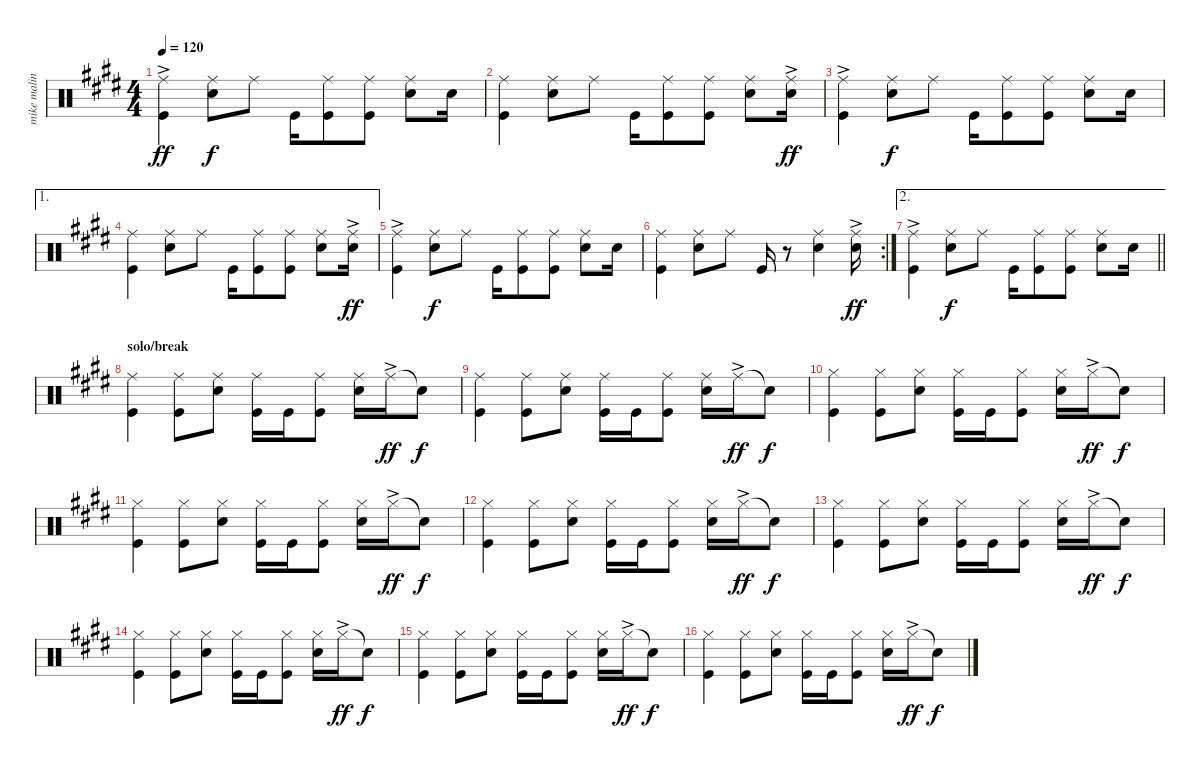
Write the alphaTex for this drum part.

\track ("mike malinin(drums)" "mike malin") {instrument percussion}
\staff {score}
\articulation defaults
\ts (4 4)
\tempo 120
\clef neutral
\ks e
("Kick (hit)"{ac} "Ride (middle)").4{dy ff} ("Ride (middle)" "Snare (hit) 2").8{dy f} "Ride (middle)".8 "Kick (hit)".16 ("Ride (middle)" "Kick (hit)").8 ("Ride (middle)" "Kick (hit)").8 ("Ride (middle)" "Snare (hit) 2").8 "Snare (hit) 2".16 |
("Kick (hit)" "Ride (middle)").4 ("Ride (middle)" "Snare (hit) 2").8 "Ride (middle)".8 "Kick (hit)".16 ("Ride (middle)" "Kick (hit)").8 ("Ride (middle)" "Kick (hit)").8 ("Ride (middle)" "Snare (hit) 2").8 ("Ride (middle)"{ac} "Snare (hit) 2").16{dy ff} |
("Kick (hit)"{ac} "Ride (middle)").4 ("Ride (middle)" "Snare (hit) 2").8{dy f} "Ride (middle)".8 "Kick (hit)".16 ("Ride (middle)" "Kick (hit)").8 ("Ride (middle)" "Kick (hit)").8 ("Ride (middle)" "Snare (hit) 2").8 "Snare (hit) 2".16 |
\ae 1
("Kick (hit)" "Ride (middle)").4 ("Ride (middle)" "Snare (hit) 2").8 "Ride (middle)".8 "Kick (hit)".16 ("Ride (middle)" "Kick (hit)").8 ("Ride (middle)" "Kick (hit)").8 ("Ride (middle)" "Snare (hit) 2").8 ("Ride (middle)"{ac} "Snare (hit) 2").16{dy ff} |
("Kick (hit)"{ac} "Ride (middle)").4 ("Ride (middle)" "Snare (hit) 2").8{dy f} "Ride (middle)".8 "Kick (hit)".16 ("Ride (middle)" "Kick (hit)").8 ("Ride (middle)" "Kick (hit)").8 ("Ride (middle)" "Snare (hit) 2").8 "Snare (hit) 2".16 |
\rc 2
("Kick (hit)" "Ride (middle)").4 ("Ride (middle)" "Snare (hit) 2").8 "Ride (middle)".8 "Kick (hit)".16 r.8 ("Ride (middle)" "Snare (hit) 2").4 ("Ride (middle)"{ac} "Snare (hit) 2").16{dy ff} |
\ae 2
\barLineRight lightlight
("Kick (hit)"{ac} "Ride (middle)").4 ("Ride (middle)" "Snare (hit) 2").8{dy f} "Ride (middle)".8 "Kick (hit)".16 ("Ride (middle)" "Kick (hit)").8 ("Ride (middle)" "Kick (hit)").8 ("Ride (middle)" "Snare (hit) 2").8 "Snare (hit) 2".16 |
\section ("" "solo/break")
("Ride (middle)" "Kick (hit)").4 ("Ride (middle)" "Kick (hit)").8 ("Ride (middle)" "Snare (hit) 2").8 ("Ride (middle)" "Kick (hit)").16 "Kick (hit)".16 ("Ride (middle)" "Kick (hit)").8 ("Ride (middle)" "Snare (hit) 2").16 "Ride (middle)"{ac}.16{dy ff} "Snare (hit)"{t}.8{dy f} |
("Ride (middle)" "Kick (hit)").4 ("Ride (middle)" "Kick (hit)").8 ("Ride (middle)" "Snare (hit) 2").8 ("Ride (middle)" "Kick (hit)").16 "Kick (hit)".16 ("Ride (middle)" "Kick (hit)").8 ("Ride (middle)" "Snare (hit) 2").16 "Ride (middle)"{ac}.16{dy ff} "Snare (hit)"{t}.8{dy f} |
("Hi-Hat (closed)" "Kick (hit)").4 ("Hi-Hat (closed)" "Kick (hit)").8 ("Hi-Hat (closed)" "Snare (hit) 2").8 ("Hi-Hat (closed)" "Kick (hit)").16 "Kick (hit)".16 ("Hi-Hat (closed)" "Kick (hit)").8 ("Hi-Hat (closed)" "Snare (hit) 2").16 "Hi-Hat (closed)"{ac}.16{dy ff} "Snare (hit)"{t}.8{dy f} |
("Hi-Hat (closed)" "Kick (hit)").4 ("Hi-Hat (closed)" "Kick (hit)").8 ("Hi-Hat (closed)" "Snare (hit) 2").8 ("Hi-Hat (closed)" "Kick (hit)").16 "Kick (hit)".16 ("Hi-Hat (closed)" "Kick (hit)").8 ("Hi-Hat (closed)" "Snare (hit) 2").16 "Hi-Hat (closed)"{ac}.16{dy ff} "Snare (hit)"{t}.8{dy f} |
("Hi-Hat (closed)" "Kick (hit)").4 ("Hi-Hat (closed)" "Kick (hit)").8 ("Hi-Hat (closed)" "Snare (hit) 2").8 ("Hi-Hat (closed)" "Kick (hit)").16 "Kick (hit)".16 ("Hi-Hat (closed)" "Kick (hit)").8 ("Hi-Hat (closed)" "Snare (hit) 2").16 "Hi-Hat (closed)"{ac}.16{dy ff} "Snare (hit)"{t}.8{dy f} |
("Hi-Hat (closed)" "Kick (hit)").4 ("Hi-Hat (closed)" "Kick (hit)").8 ("Hi-Hat (closed)" "Snare (hit) 2").8 ("Hi-Hat (closed)" "Kick (hit)").16 "Kick (hit)".16 ("Hi-Hat (closed)" "Kick (hit)").8 ("Hi-Hat (closed)" "Snare (hit) 2").16 "Hi-Hat (closed)"{ac}.16{dy ff} "Snare (hit)"{t}.8{dy f} |
("Hi-Hat (closed)" "Kick (hit)").4 ("Hi-Hat (closed)" "Kick (hit)").8 ("Hi-Hat (closed)" "Snare (hit) 2").8 ("Hi-Hat (closed)" "Kick (hit)").16 "Kick (hit)".16 ("Hi-Hat (closed)" "Kick (hit)").8 ("Hi-Hat (closed)" "Snare (hit) 2").16 "Hi-Hat (closed)"{ac}.16{dy ff} "Snare (hit)"{t}.8{dy f} |
("Hi-Hat (closed)" "Kick (hit)").4 ("Hi-Hat (closed)" "Kick (hit)").8 ("Hi-Hat (closed)" "Snare (hit) 2").8 ("Hi-Hat (closed)" "Kick (hit)").16 "Kick (hit)".16 ("Hi-Hat (closed)" "Kick (hit)").8 ("Hi-Hat (closed)" "Snare (hit) 2").16 "Hi-Hat (closed)"{ac}.16{dy ff} "Snare (hit)"{t}.8{dy f} |
("Hi-Hat (closed)" "Kick (hit)").4 ("Hi-Hat (closed)" "Kick (hit)").8 ("Hi-Hat (closed)" "Snare (hit) 2").8 ("Hi-Hat (closed)" "Kick (hit)").16 "Kick (hit)".16 ("Hi-Hat (closed)" "Kick (hit)").8 ("Hi-Hat (closed)" "Snare (hit) 2").16 "Hi-Hat (closed)"{ac}.16{dy ff} "Snare (hit)"{t}.8{dy f}
